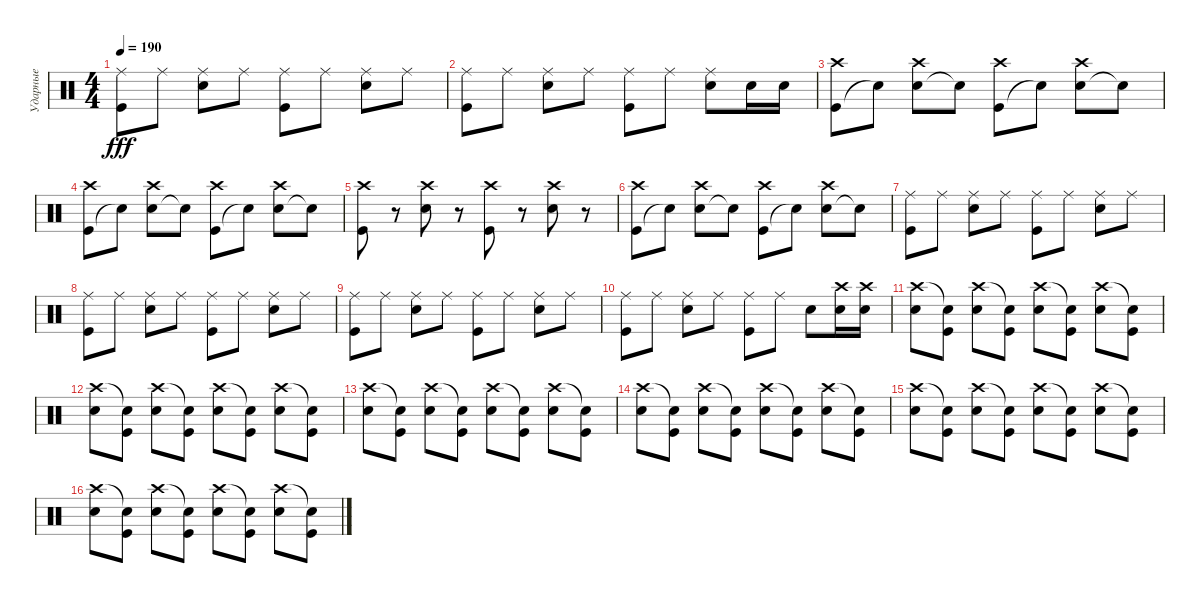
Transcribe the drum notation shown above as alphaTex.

\track ("Ударные" "Ударные") {instrument percussion}
\staff {score}
\articulation defaults
\ts (4 4)
\tempo 190
\clef neutral
\ks c
("Kick (hit)" "Ride (middle)").8{dy fff} "Ride (middle)".8 ("Electric Snare (hit)" "Ride (middle)").8 "Ride (middle)".8 ("Kick (hit)" "Ride (middle)").8 "Ride (middle)".8 ("Electric Snare (hit)" "Ride (middle)").8 "Ride (middle)".8 |
("Kick (hit)" "Ride (middle)").8 "Ride (middle)".8 ("Electric Snare (hit)" "Ride (middle)").8 "Ride (middle)".8 ("Kick (hit)" "Ride (middle)").8 "Ride (middle)".8 ("Electric Snare (hit)" "Ride (middle)").8 "Electric Snare (hit)".16 "Electric Snare (hit)".16 |
("Kick (hit)" "Crash high (hit)").8 "Snare (hit)"{t}.8 ("Electric Snare (hit)" "Crash high (hit)").8 "Snare (hit)"{t}.8 ("Kick (hit)" "Crash high (hit)").8 "Snare (hit)"{t}.8 ("Electric Snare (hit)" "Crash high (hit)").8 "Snare (hit)"{t}.8 |
("Kick (hit)" "Crash high (hit)").8 "Snare (hit)"{t}.8 ("Electric Snare (hit)" "Crash high (hit)").8 "Snare (hit)"{t}.8 ("Kick (hit)" "Crash high (hit)").8 "Snare (hit)"{t}.8 ("Electric Snare (hit)" "Crash high (hit)").8 "Snare (hit)"{t}.8 |
("Kick (hit)" "Crash high (hit)").8 r.8 ("Electric Snare (hit)" "Crash high (hit)").8 r.8 ("Kick (hit)" "Crash high (hit)").8 r.8 ("Electric Snare (hit)" "Crash high (hit)").8 r.8 |
("Kick (hit)" "Crash high (hit)").8 "Snare (hit)"{t}.8 ("Electric Snare (hit)" "Crash high (hit)").8 "Snare (hit)"{t}.8 ("Kick (hit)" "Crash high (hit)").8 "Snare (hit)"{t}.8 ("Electric Snare (hit)" "Crash high (hit)").8 "Snare (hit)"{t}.8 |
("Kick (hit)" "Ride (middle)").8 "Ride (middle)".8 ("Electric Snare (hit)" "Ride (middle)").8 "Ride (middle)".8 ("Kick (hit)" "Ride (middle)").8 "Ride (middle)".8 ("Electric Snare (hit)" "Ride (middle)").8 "Ride (middle)".8 |
("Kick (hit)" "Ride (middle)").8 "Ride (middle)".8 ("Electric Snare (hit)" "Ride (middle)").8 "Ride (middle)".8 ("Kick (hit)" "Ride (middle)").8 "Ride (middle)".8 ("Electric Snare (hit)" "Ride (middle)").8 "Ride (middle)".8 |
("Kick (hit)" "Ride (middle)").8 "Ride (middle)".8 ("Electric Snare (hit)" "Ride (middle)").8 "Ride (middle)".8 ("Kick (hit)" "Ride (middle)").8 "Ride (middle)".8 ("Electric Snare (hit)" "Ride (middle)").8 "Ride (middle)".8 |
("Kick (hit)" "Ride (middle)").8 "Ride (middle)".8 ("Electric Snare (hit)" "Ride (middle)").8 "Ride (middle)".8 ("Kick (hit)" "Ride (middle)").8 "Ride (middle)".8 "Electric Snare (hit)".8 ("Electric Snare (hit)" "Crash high (hit)").16 ("Electric Snare (hit)" "Crash high (hit)").16 |
("Electric Snare (hit)" "Crash high (hit)").8 ("Kick (hit)" "Snare (hit)"{t}).8 ("Electric Snare (hit)" "Crash high (hit)").8 ("Kick (hit)" "Snare (hit)"{t}).8 ("Electric Snare (hit)" "Crash high (hit)").8 ("Kick (hit)" "Snare (hit)"{t}).8 ("Electric Snare (hit)" "Crash high (hit)").8 ("Kick (hit)" "Snare (hit)"{t}).8 |
("Electric Snare (hit)" "Crash high (hit)").8 ("Kick (hit)" "Snare (hit)"{t}).8 ("Electric Snare (hit)" "Crash high (hit)").8 ("Kick (hit)" "Snare (hit)"{t}).8 ("Electric Snare (hit)" "Crash high (hit)").8 ("Kick (hit)" "Snare (hit)"{t}).8 ("Electric Snare (hit)" "Crash high (hit)").8 ("Kick (hit)" "Snare (hit)"{t}).8 |
("Electric Snare (hit)" "Crash high (hit)").8 ("Kick (hit)" "Snare (hit)"{t}).8 ("Electric Snare (hit)" "Crash high (hit)").8 ("Kick (hit)" "Snare (hit)"{t}).8 ("Electric Snare (hit)" "Crash high (hit)").8 ("Kick (hit)" "Snare (hit)"{t}).8 ("Electric Snare (hit)" "Crash high (hit)").8 ("Kick (hit)" "Snare (hit)"{t}).8 |
("Electric Snare (hit)" "Crash high (hit)").8 ("Kick (hit)" "Snare (hit)"{t}).8 ("Electric Snare (hit)" "Crash high (hit)").8 ("Kick (hit)" "Snare (hit)"{t}).8 ("Electric Snare (hit)" "Crash high (hit)").8 ("Kick (hit)" "Snare (hit)"{t}).8 ("Electric Snare (hit)" "Crash high (hit)").8 ("Kick (hit)" "Snare (hit)"{t}).8 |
("Electric Snare (hit)" "Crash high (hit)").8 ("Kick (hit)" "Snare (hit)"{t}).8 ("Electric Snare (hit)" "Crash high (hit)").8 ("Kick (hit)" "Snare (hit)"{t}).8 ("Electric Snare (hit)" "Crash high (hit)").8 ("Kick (hit)" "Snare (hit)"{t}).8 ("Electric Snare (hit)" "Crash high (hit)").8 ("Kick (hit)" "Snare (hit)"{t}).8 |
("Electric Snare (hit)" "Crash high (hit)").8 ("Kick (hit)" "Snare (hit)"{t}).8 ("Electric Snare (hit)" "Crash high (hit)").8 ("Kick (hit)" "Snare (hit)"{t}).8 ("Electric Snare (hit)" "Crash high (hit)").8 ("Kick (hit)" "Snare (hit)"{t}).8 ("Electric Snare (hit)" "Crash high (hit)").8 ("Kick (hit)" "Snare (hit)"{t}).8
